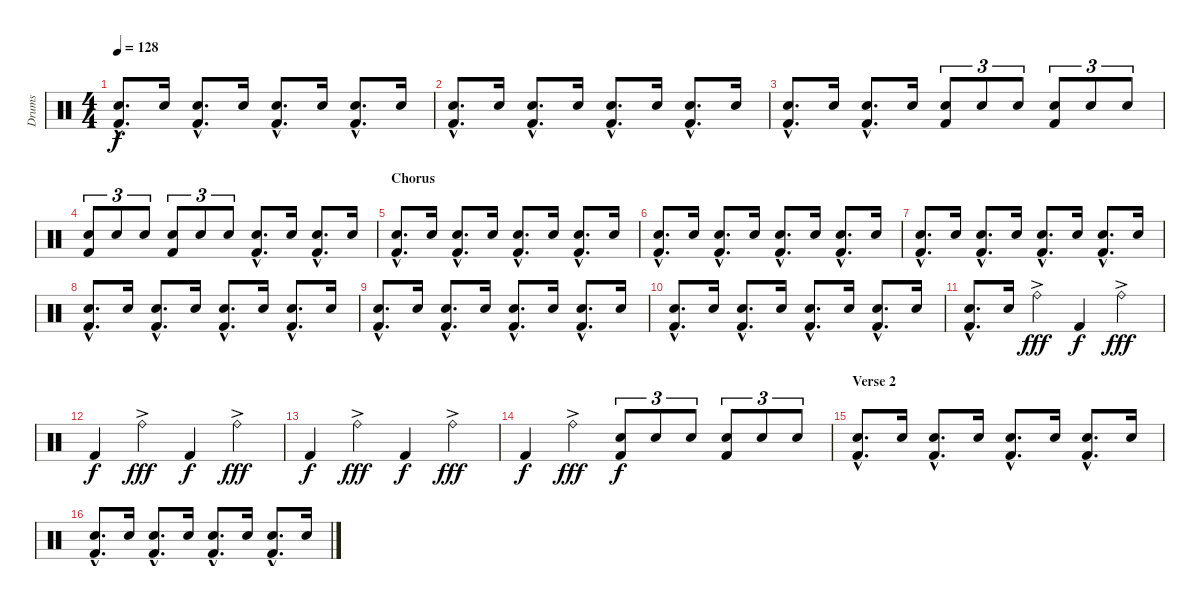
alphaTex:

\track ("Drums" "Drums") {instrument percussion}
\staff {score}
\articulation defaults
\ts (4 4)
\tempo 128
\clef neutral
\ks c
("Snare (hit) 2"{hac} "Kick (hit) 2"{hac}).8{d dy f} "Snare (hit) 2".16 ("Snare (hit) 2"{hac} "Kick (hit) 2"{hac}).8{d} "Snare (hit) 2".16 ("Snare (hit) 2"{hac} "Kick (hit) 2"{hac}).8{d} "Snare (hit) 2".16 ("Snare (hit) 2"{hac} "Kick (hit) 2"{hac}).8{d} "Snare (hit) 2".16 |
("Snare (hit) 2"{hac} "Kick (hit) 2"{hac}).8{d} "Snare (hit) 2".16 ("Snare (hit) 2"{hac} "Kick (hit) 2"{hac}).8{d} "Snare (hit) 2".16 ("Snare (hit) 2"{hac} "Kick (hit) 2"{hac}).8{d} "Snare (hit) 2".16 ("Snare (hit) 2"{hac} "Kick (hit) 2"{hac}).8{d} "Snare (hit) 2".16 |
("Snare (hit) 2"{hac} "Kick (hit) 2"{hac}).8{d} "Snare (hit) 2".16 ("Snare (hit) 2"{hac} "Kick (hit) 2"{hac}).8{d} "Snare (hit) 2".16 ("Snare (hit) 2" "Kick (hit) 2").8{tu (3 2)} "Snare (hit) 2".8{tu (3 2)} "Snare (hit) 2".8{tu (3 2)} ("Snare (hit) 2" "Kick (hit) 2").8{tu (3 2)} "Snare (hit) 2".8{tu (3 2)} "Snare (hit) 2".8{tu (3 2)} |
("Snare (hit) 2" "Kick (hit) 2").8{tu (3 2)} "Snare (hit) 2".8{tu (3 2)} "Snare (hit) 2".8{tu (3 2)} ("Snare (hit) 2" "Kick (hit) 2").8{tu (3 2)} "Snare (hit) 2".8{tu (3 2)} "Snare (hit) 2".8{tu (3 2)} ("Snare (hit) 2"{hac} "Kick (hit) 2"{hac}).8{d} "Snare (hit) 2".16 ("Snare (hit) 2"{hac} "Kick (hit) 2"{hac}).8{d} "Snare (hit) 2".16 |
\section ("" "Chorus")
("Snare (hit) 2"{hac} "Kick (hit) 2"{hac}).8{d} "Snare (hit) 2".16 ("Snare (hit) 2"{hac} "Kick (hit) 2"{hac}).8{d} "Snare (hit) 2".16 ("Snare (hit) 2"{hac} "Kick (hit) 2"{hac}).8{d} "Snare (hit) 2".16 ("Snare (hit) 2"{hac} "Kick (hit) 2"{hac}).8{d} "Snare (hit) 2".16 |
("Snare (hit) 2"{hac} "Kick (hit) 2"{hac}).8{d} "Snare (hit) 2".16 ("Snare (hit) 2"{hac} "Kick (hit) 2"{hac}).8{d} "Snare (hit) 2".16 ("Snare (hit) 2"{hac} "Kick (hit) 2"{hac}).8{d} "Snare (hit) 2".16 ("Snare (hit) 2"{hac} "Kick (hit) 2"{hac}).8{d} "Snare (hit) 2".16 |
("Snare (hit) 2"{hac} "Kick (hit) 2"{hac}).8{d} "Snare (hit) 2".16 ("Snare (hit) 2"{hac} "Kick (hit) 2"{hac}).8{d} "Snare (hit) 2".16 ("Snare (hit) 2"{hac} "Kick (hit) 2"{hac}).8{d} "Snare (hit) 2".16 ("Snare (hit) 2"{hac} "Kick (hit) 2"{hac}).8{d} "Snare (hit) 2".16 |
("Snare (hit) 2"{hac} "Kick (hit) 2"{hac}).8{d} "Snare (hit) 2".16 ("Snare (hit) 2"{hac} "Kick (hit) 2"{hac}).8{d} "Snare (hit) 2".16 ("Snare (hit) 2"{hac} "Kick (hit) 2"{hac}).8{d} "Snare (hit) 2".16 ("Snare (hit) 2"{hac} "Kick (hit) 2"{hac}).8{d} "Snare (hit) 2".16 |
("Snare (hit) 2"{hac} "Kick (hit) 2"{hac}).8{d} "Snare (hit) 2".16 ("Snare (hit) 2"{hac} "Kick (hit) 2"{hac}).8{d} "Snare (hit) 2".16 ("Snare (hit) 2"{hac} "Kick (hit) 2"{hac}).8{d} "Snare (hit) 2".16 ("Snare (hit) 2"{hac} "Kick (hit) 2"{hac}).8{d} "Snare (hit) 2".16 |
("Snare (hit) 2"{hac} "Kick (hit) 2"{hac}).8{d} "Snare (hit) 2".16 ("Snare (hit) 2"{hac} "Kick (hit) 2"{hac}).8{d} "Snare (hit) 2".16 ("Snare (hit) 2"{hac} "Kick (hit) 2"{hac}).8{d} "Snare (hit) 2".16 ("Snare (hit) 2"{hac} "Kick (hit) 2"{hac}).8{d} "Snare (hit) 2".16 |
("Snare (hit) 2"{hac} "Kick (hit) 2"{hac}).8{d} "Snare (hit) 2".16 "Ride (bell)"{ac}.4{dy fff} "Kick (hit) 2".4{dy f} "Ride (bell)"{ac}.4{dy fff} |
"Kick (hit) 2".4{dy f} "Ride (bell)"{ac}.4{dy fff} "Kick (hit) 2".4{dy f} "Ride (bell)"{ac}.4{dy fff} |
"Kick (hit) 2".4{dy f} "Ride (bell)"{ac}.4{dy fff} "Kick (hit) 2".4{dy f} "Ride (bell)"{ac}.4{dy fff} |
"Kick (hit) 2".4{dy f} "Ride (bell)"{ac}.4{dy fff} ("Snare (hit) 2" "Kick (hit) 2").8{tu (3 2) dy f} "Snare (hit) 2".8{tu (3 2)} "Snare (hit) 2".8{tu (3 2)} ("Snare (hit) 2" "Kick (hit) 2").8{tu (3 2)} "Snare (hit) 2".8{tu (3 2)} "Snare (hit) 2".8{tu (3 2)} |
\section ("" "Verse 2")
("Snare (hit) 2"{hac} "Kick (hit) 2"{hac}).8{d} "Snare (hit) 2".16 ("Snare (hit) 2"{hac} "Kick (hit) 2"{hac}).8{d} "Snare (hit) 2".16 ("Snare (hit) 2"{hac} "Kick (hit) 2"{hac}).8{d} "Snare (hit) 2".16 ("Snare (hit) 2"{hac} "Kick (hit) 2"{hac}).8{d} "Snare (hit) 2".16 |
("Snare (hit) 2"{hac} "Kick (hit) 2"{hac}).8{d} "Snare (hit) 2".16 ("Snare (hit) 2"{hac} "Kick (hit) 2"{hac}).8{d} "Snare (hit) 2".16 ("Snare (hit) 2"{hac} "Kick (hit) 2"{hac}).8{d} "Snare (hit) 2".16 ("Snare (hit) 2"{hac} "Kick (hit) 2"{hac}).8{d} "Snare (hit) 2".16
